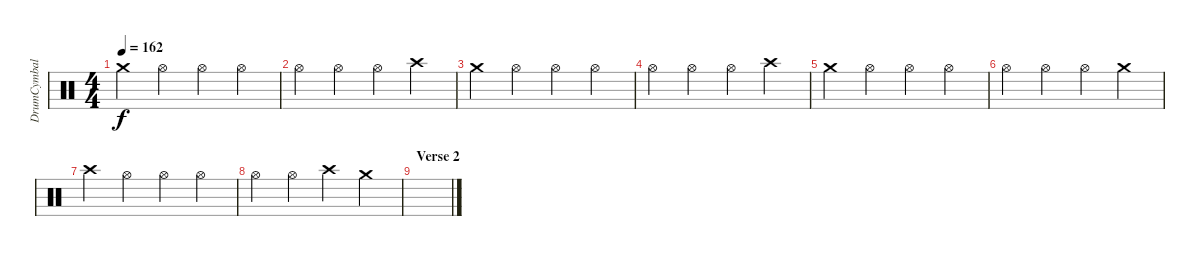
\track ("DrumCymbal" "DrumCymbal") {instrument percussion}
\staff {score}
\articulation defaults
\ts (4 4)
\tempo 162
\clef neutral
\ks c "Crash medium (hit)".4{dy f} "Hi-Hat (open)".4 "Hi-Hat (open)".4 "Hi-Hat (open)".4
|
"Hi-Hat (open)".4 "Hi-Hat (open)".4 "Hi-Hat (open)".4 "Crash high (hit)".4 |
"Crash medium (hit)".4 "Hi-Hat (open)".4 "Hi-Hat (open)".4 "Hi-Hat (open)".4 |
"Hi-Hat (open)".4 "Hi-Hat (open)".4 "Hi-Hat (open)".4 "Crash high (hit)".4 |
"Crash medium (hit)".4 "Hi-Hat (open)".4 "Hi-Hat (open)".4 "Hi-Hat (open)".4 |
"Hi-Hat (open)".4 "Hi-Hat (open)".4 "Hi-Hat (open)".4 "Crash medium (hit)".4 |
"Crash high (hit)".4 "Hi-Hat (open)".4 "Hi-Hat (open)".4 "Hi-Hat (open)".4 |
"Hi-Hat (open)".4 "Hi-Hat (open)".4 "Crash high (hit)".4 "Crash medium (hit)".4 |
\section ("" "Verse 2")
